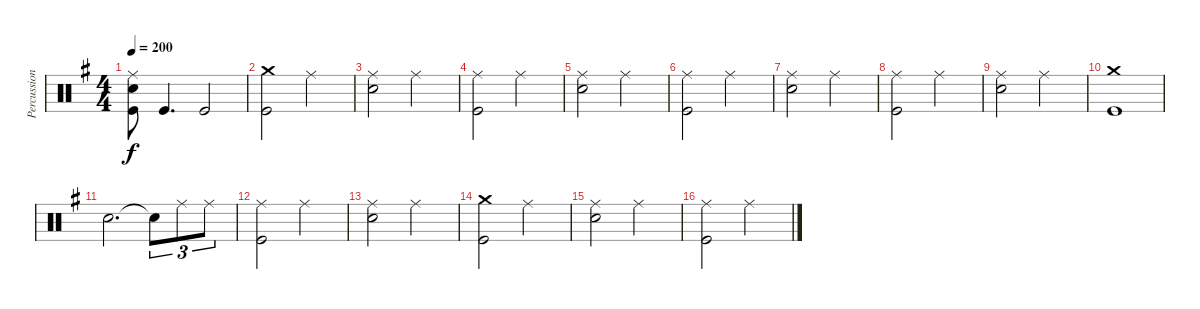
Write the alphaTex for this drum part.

\track ("Percussion" "Percussion") {instrument percussion}
\staff {score}
\articulation defaults
\ts (4 4)
\tempo 200
\clef neutral
\ks g
("Ride (middle)" "Electric Snare (hit)" "Kick (hit)").8{dy f} "Kick (hit)".4{d} "Kick (hit)".2 |
("Crash medium (hit)" "Kick (hit)").2 "Ride (middle)".2 |
("Ride (middle)" "Electric Snare (hit)").2 "Ride (middle)".2 |
("Ride (middle)" "Kick (hit)").2 "Ride (middle)".2 |
("Ride (middle)" "Electric Snare (hit)").2 "Ride (middle)".2 |
("Ride (middle)" "Kick (hit)").2 "Ride (middle)".2 |
("Ride (middle)" "Electric Snare (hit)").2 "Ride (middle)".2 |
("Ride (middle)" "Kick (hit)").2 "Ride (middle)".2 |
("Ride (middle)" "Electric Snare (hit)").2 "Ride (middle)".2 |
("Crash medium (hit)" "Kick (hit)").1 |
"Electric Snare (hit)".2{d} "Snare (hit)"{t}.8{tu (3 2)} "Ride (middle)".8{tu (3 2)} "Ride (middle)".8{tu (3 2)} |
("Ride (middle)" "Kick (hit)").2 "Ride (middle)".2 |
("Ride (middle)" "Electric Snare (hit)").2 "Ride (middle)".2 |
("Crash medium (hit)" "Kick (hit)").2 "Ride (middle)".2 |
("Ride (middle)" "Electric Snare (hit)").2 "Ride (middle)".2 |
("Ride (middle)" "Kick (hit)").2 "Ride (middle)".2
